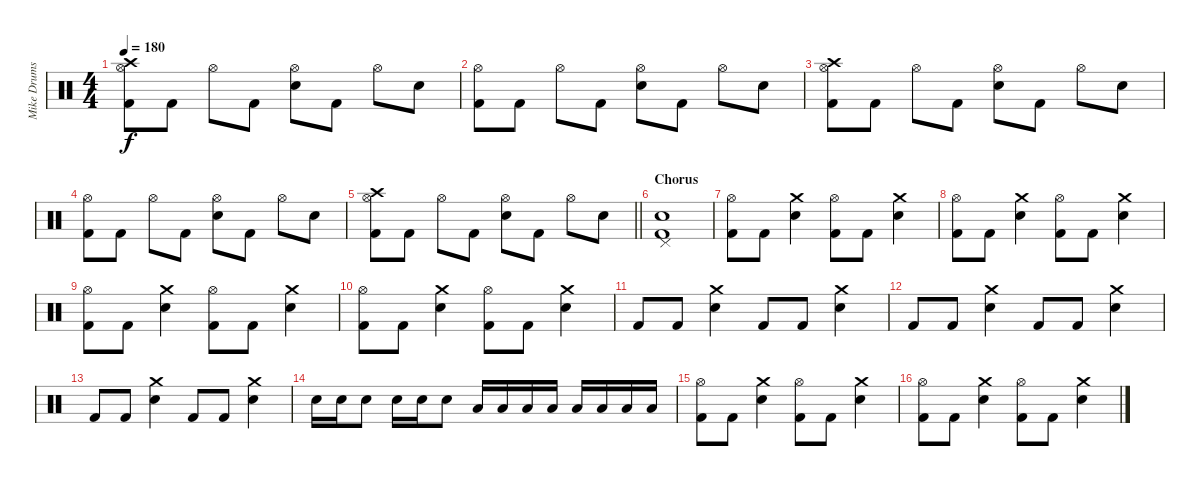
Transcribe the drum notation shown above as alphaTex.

\track ("Mike Drums" "Mike Drums") {instrument percussion}
\staff {score}
\articulation defaults
\ts (4 4)
\tempo 180
\clef neutral
\ks c
("Crash high (hit)" "Hi-Hat (open)" "Kick (hit) 2").8{dy f} "Kick (hit) 2".8 "Hi-Hat (open)".8 "Kick (hit) 2".8 ("Hi-Hat (open)" "Snare (hit) 2").8 "Kick (hit) 2".8 "Hi-Hat (open)".8 "Snare (hit) 2".8 |
("Hi-Hat (open)" "Kick (hit) 2").8 "Kick (hit) 2".8 "Hi-Hat (open)".8 "Kick (hit) 2".8 ("Hi-Hat (open)" "Snare (hit) 2").8 "Kick (hit) 2".8 "Hi-Hat (open)".8 "Snare (hit) 2".8 |
("Crash high (hit)" "Hi-Hat (open)" "Kick (hit) 2").8 "Kick (hit) 2".8 "Hi-Hat (open)".8 "Kick (hit) 2".8 ("Hi-Hat (open)" "Snare (hit) 2").8 "Kick (hit) 2".8 "Hi-Hat (open)".8 "Snare (hit) 2".8 |
("Hi-Hat (open)" "Kick (hit) 2").8 "Kick (hit) 2".8 "Hi-Hat (open)".8 "Kick (hit) 2".8 ("Hi-Hat (open)" "Snare (hit) 2").8 "Kick (hit) 2".8 "Hi-Hat (open)".8 "Snare (hit) 2".8 |
\barLineRight lightlight
("Crash high (hit)" "Hi-Hat (open)" "Kick (hit) 2").8 "Kick (hit) 2".8 "Hi-Hat (open)".8 "Kick (hit) 2".8 ("Hi-Hat (open)" "Snare (hit) 2").8 "Kick (hit) 2".8 "Hi-Hat (open)".8 "Snare (hit) 2".8 |
\section ("" "Chorus")
("Pedal Hi-Hat (hit)" "Snare (hit) 2" "Kick (hit) 2").1 |
("Hi-Hat (open)" "Kick (hit) 2").8 "Kick (hit) 2".8 ("Crash medium (hit)" "Snare (hit) 2").4 ("Hi-Hat (open)" "Kick (hit) 2").8 "Kick (hit) 2".8 ("Crash medium (hit)" "Snare (hit) 2").4 |
("Hi-Hat (open)" "Kick (hit) 2").8 "Kick (hit) 2".8 ("Crash medium (hit)" "Snare (hit) 2").4 ("Hi-Hat (open)" "Kick (hit) 2").8 "Kick (hit) 2".8 ("Crash medium (hit)" "Snare (hit) 2").4 |
("Hi-Hat (open)" "Kick (hit) 2").8 "Kick (hit) 2".8 ("Crash medium (hit)" "Snare (hit) 2").4 ("Hi-Hat (open)" "Kick (hit) 2").8 "Kick (hit) 2".8 ("Crash medium (hit)" "Snare (hit) 2").4 |
("Hi-Hat (open)" "Kick (hit) 2").8 "Kick (hit) 2".8 ("Crash medium (hit)" "Snare (hit) 2").4 ("Hi-Hat (open)" "Kick (hit) 2").8 "Kick (hit) 2".8 ("Crash medium (hit)" "Snare (hit) 2").4 |
"Kick (hit) 2".8 "Kick (hit) 2".8 ("Crash medium (hit)" "Snare (hit) 2").4 "Kick (hit) 2".8 "Kick (hit) 2".8 ("Crash medium (hit)" "Snare (hit) 2").4 |
"Kick (hit) 2".8 "Kick (hit) 2".8 ("Crash medium (hit)" "Snare (hit) 2").4 "Kick (hit) 2".8 "Kick (hit) 2".8 ("Crash medium (hit)" "Snare (hit) 2").4 |
"Kick (hit) 2".8 "Kick (hit) 2".8 ("Crash medium (hit)" "Snare (hit) 2").4 "Kick (hit) 2".8 "Kick (hit) 2".8 ("Crash medium (hit)" "Snare (hit) 2").4 |
"Snare (hit) 2".16 "Snare (hit) 2".16 "Snare (hit) 2".8 "Snare (hit) 2".16 "Snare (hit) 2".16 "Snare (hit) 2".8 "Low Tom (hit)".16 "Low Tom (hit)".16 "Low Tom (hit)".16 "Low Tom (hit)".16 "Low Tom (hit)".16 "Low Tom (hit)".16 "Low Tom (hit)".16 "Low Tom (hit)".16 |
("Hi-Hat (open)" "Kick (hit) 2").8 "Kick (hit) 2".8 ("Crash medium (hit)" "Snare (hit) 2").4 ("Hi-Hat (open)" "Kick (hit) 2").8 "Kick (hit) 2".8 ("Crash medium (hit)" "Snare (hit) 2").4 |
("Hi-Hat (open)" "Kick (hit) 2").8 "Kick (hit) 2".8 ("Crash medium (hit)" "Snare (hit) 2").4 ("Hi-Hat (open)" "Kick (hit) 2").8 "Kick (hit) 2".8 ("Crash medium (hit)" "Snare (hit) 2").4
